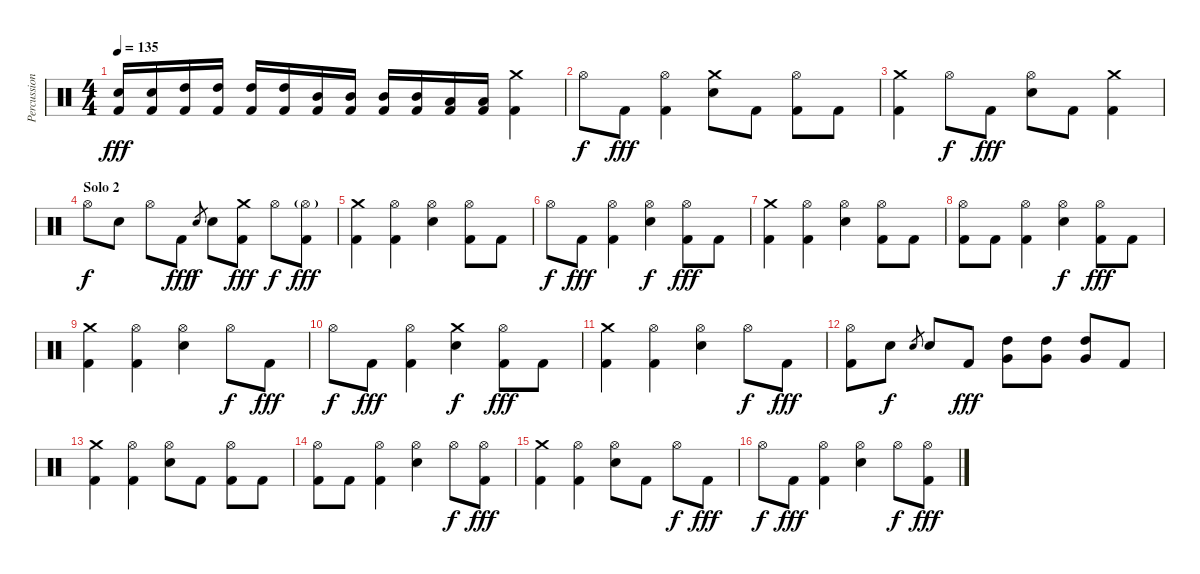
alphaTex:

\track ("Percussion" "Percussion") {instrument percussion}
\staff {score}
\articulation defaults
\ts (4 4)
\tempo 135
\clef neutral
\ks c
("Electric Snare (hit)" "Kick (hit) 2").16{dy fff} ("Electric Snare (hit)" "Kick (hit) 2").16 ("High Tom (hit)" "Kick (hit) 2").16 ("High Tom (hit)" "Kick (hit) 2").16 ("High Tom (hit)" "Kick (hit) 2").16 ("High Tom (hit)" "Kick (hit) 2").16 ("Mid Tom (hit)" "Kick (hit) 2").16 ("Mid Tom (hit)" "Kick (hit) 2").16 ("Mid Tom (hit)" "Kick (hit) 2").16 ("Mid Tom (hit)" "Kick (hit) 2").16 ("Low Tom (hit)" "Kick (hit) 2").16 ("Low Tom (hit)" "Kick (hit) 2").16 ("Crash medium (hit)" "Kick (hit) 2").4 |
"Hi-Hat (open)".8{dy f} "Kick (hit) 2".8{dy fff} ("Hi-Hat (open)" "Kick (hit) 2").4 ("Crash medium (hit)" "Electric Snare (hit)").8 "Kick (hit) 2".8 ("Hi-Hat (open)" "Kick (hit) 2").8 "Kick (hit) 2".8 |
("Crash medium (hit)" "Kick (hit) 2").4 "Hi-Hat (open)".8{dy f} "Kick (hit) 2".8{dy fff} ("Hi-Hat (open)" "Electric Snare (hit)").8 "Kick (hit) 2".8 ("Crash medium (hit)" "Kick (hit) 2").4 |
\section ("" "Solo 2")
"Hi-Hat (open)".8{dy f} "Electric Snare (hit)".8 "Hi-Hat (open)".8 "Kick (hit) 2".8{dy fff} "Electric Snare (hit)".8{gr dy f} "Electric Snare (hit)".8 ("Crash medium (hit)" "Kick (hit) 2").8{dy fff} "Hi-Hat (open)".8{dy f} ("Hi-Hat (open)"{g} "Kick (hit) 2").8{dy fff} |
("Crash medium (hit)" "Kick (hit) 2").4 ("Hi-Hat (open)" "Kick (hit) 2").4 ("Hi-Hat (open)" "Electric Snare (hit)").4 ("Hi-Hat (open)" "Kick (hit) 2").8 "Kick (hit) 2".8 |
"Hi-Hat (open)".8{dy f} "Kick (hit) 2".8{dy fff} ("Hi-Hat (open)" "Kick (hit) 2").4 ("Hi-Hat (open)" "Electric Snare (hit)").4{dy f} ("Hi-Hat (open)" "Kick (hit) 2").8{dy fff} "Kick (hit) 2".8 |
("Crash medium (hit)" "Kick (hit) 2").4 ("Hi-Hat (open)" "Kick (hit) 2").4 ("Hi-Hat (open)" "Electric Snare (hit)").4 ("Hi-Hat (open)" "Kick (hit) 2").8 "Kick (hit) 2".8 |
("Hi-Hat (open)" "Kick (hit) 2").8 "Kick (hit) 2".8 ("Hi-Hat (open)" "Kick (hit) 2").4 ("Hi-Hat (open)" "Electric Snare (hit)").4{dy f} ("Hi-Hat (open)" "Kick (hit) 2").8{dy fff} "Kick (hit) 2".8 |
("Crash medium (hit)" "Kick (hit) 2").4 ("Hi-Hat (open)" "Kick (hit) 2").4 ("Hi-Hat (open)" "Electric Snare (hit)").4 "Hi-Hat (open)".8{dy f} "Kick (hit) 2".8{dy fff} |
"Hi-Hat (open)".8{dy f} "Kick (hit) 2".8{dy fff} ("Hi-Hat (open)" "Kick (hit) 2").4 ("Crash medium (hit)" "Electric Snare (hit)").4{dy f} ("Hi-Hat (open)" "Kick (hit) 2").8{dy fff} "Kick (hit) 2".8 |
("Crash medium (hit)" "Kick (hit) 2").4 ("Hi-Hat (open)" "Kick (hit) 2").4 ("Hi-Hat (open)" "Electric Snare (hit)").4 "Hi-Hat (open)".8{dy f} "Kick (hit) 2".8{dy fff} |
("Hi-Hat (open)" "Kick (hit) 2").8 "Electric Snare (hit)".8{dy f} "Electric Snare (hit)".8{gr} "Electric Snare (hit)".8 "Kick (hit) 2".8{dy fff} ("High Tom (hit)" "Very Low Tom (hit)").8 ("High Tom (hit)" "Very Low Tom (hit)").8 ("High Tom (hit)" "Very Low Tom (hit)").8 "Kick (hit) 2".8 |
("Crash medium (hit)" "Kick (hit) 2").4 ("Hi-Hat (open)" "Kick (hit) 2").4 ("Hi-Hat (open)" "Electric Snare (hit)").8 "Kick (hit) 2".8 ("Hi-Hat (open)" "Kick (hit) 2").8 "Kick (hit) 2".8 |
("Hi-Hat (open)" "Kick (hit) 2").8 "Kick (hit) 2".8 ("Hi-Hat (open)" "Kick (hit) 2").4 ("Hi-Hat (open)" "Electric Snare (hit)").4 "Hi-Hat (open)".8{dy f} ("Hi-Hat (open)" "Kick (hit) 2").8{dy fff} |
("Crash medium (hit)" "Kick (hit) 2").4 ("Hi-Hat (open)" "Kick (hit) 2").4 ("Hi-Hat (open)" "Electric Snare (hit)").8 "Kick (hit) 2".8 "Hi-Hat (open)".8{dy f} "Kick (hit) 2".8{dy fff} |
"Hi-Hat (open)".8{dy f} "Kick (hit) 2".8{dy fff} ("Hi-Hat (open)" "Kick (hit) 2").4 ("Hi-Hat (open)" "Electric Snare (hit)").4 "Hi-Hat (open)".8{dy f} ("Hi-Hat (open)" "Kick (hit) 2").8{dy fff}
